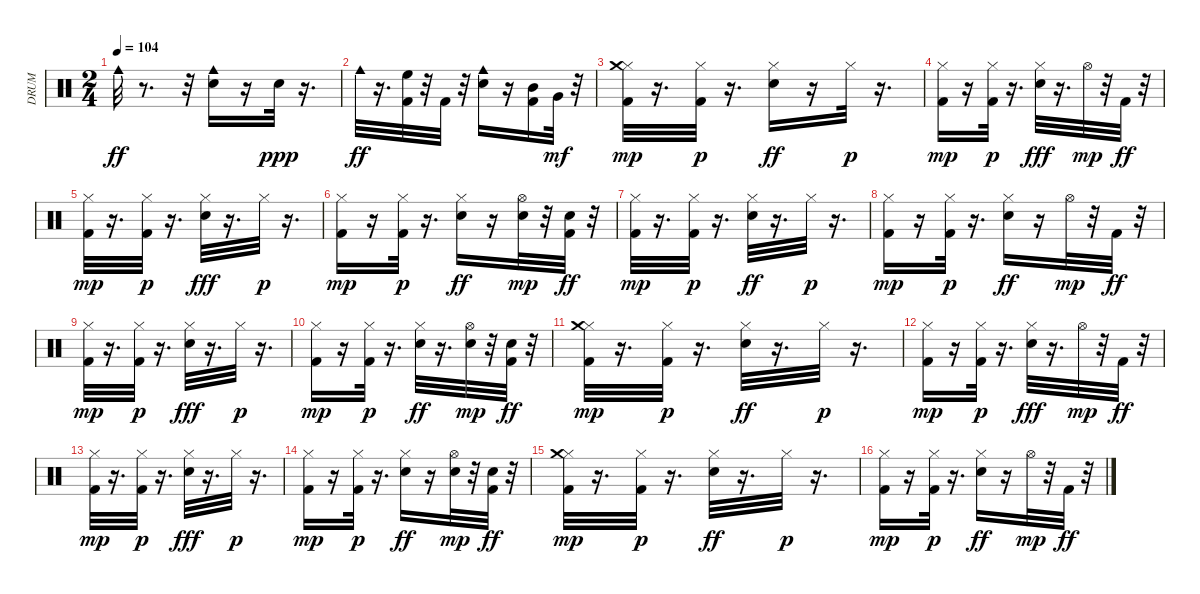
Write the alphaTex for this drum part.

\track ("DRUM    " "DRUM    ") {instrument percussion}
\staff {score}
\articulation defaults
\ts (2 4)
\tempo 104
\clef neutral
\ks c "Cowbell medium (hit)".32{dy ff}
r.8{d} r.32 ("Cowbell medium (hit)" "Snare (hit) 2").16 r.16 "Snare (hit) 2".32{dy ppp} r.16{d} |
"Cowbell medium (hit)".32{dy ff} r.16{d} ("Kick (hit) 2" "High Floor Tom (hit)").32 r.32 "Kick (hit) 2".32 r.32 ("Cowbell medium (hit)" "Snare (hit) 2").16 r.16 ("Kick (hit) 2" "Mid Tom (hit)").16 "Very Low Tom (hit)".32{dy mf} r.32 |
("Kick (hit) 2" "Hi-Hat (closed)" "Crash medium (hit)").32{dy mp} r.16{d} ("Kick (hit) 2" "Hi-Hat (closed)").32{dy p} r.16{d} ("Hi-Hat (closed)" "Snare (hit) 2").16{dy ff} r.16 "Hi-Hat (closed)".32{dy p} r.16{d} |
("Kick (hit) 2" "Hi-Hat (closed)").16{dy mp} r.16 ("Kick (hit) 2" "Hi-Hat (closed)").32{dy p} r.16{d} ("Hi-Hat (closed)" "Snare (hit) 2").32{dy fff} r.16{d} "Hi-Hat (open)".32{dy mp} r.32 "Kick (hit) 2".32{dy ff} r.32 |
("Kick (hit) 2" "Hi-Hat (closed)").32{dy mp} r.16{d} ("Kick (hit) 2" "Hi-Hat (closed)").32{dy p} r.16{d} ("Hi-Hat (closed)" "Snare (hit) 2").32{dy fff} r.16{d} "Hi-Hat (closed)".32{dy p} r.16{d} |
("Kick (hit) 2" "Hi-Hat (closed)").16{dy mp} r.16 ("Kick (hit) 2" "Hi-Hat (closed)").32{dy p} r.16{d} ("Hi-Hat (closed)" "Snare (hit) 2").16{dy ff} r.16 ("Hi-Hat (open)" "Snare (hit) 2").32{dy mp} r.32 ("Kick (hit) 2" "Snare (hit) 2").32{dy ff} r.32 |
("Kick (hit) 2" "Hi-Hat (closed)").32{dy mp} r.16{d} ("Kick (hit) 2" "Hi-Hat (closed)").32{dy p} r.16{d} ("Hi-Hat (closed)" "Snare (hit) 2").32{dy ff} r.16{d} "Hi-Hat (closed)".32{dy p} r.16{d} |
("Kick (hit) 2" "Hi-Hat (closed)").16{dy mp} r.16 ("Kick (hit) 2" "Hi-Hat (closed)").32{dy p} r.16{d} ("Hi-Hat (closed)" "Snare (hit) 2").16{dy ff} r.16 "Hi-Hat (open)".32{dy mp} r.32 "Kick (hit) 2".32{dy ff} r.32 |
("Kick (hit) 2" "Hi-Hat (closed)").32{dy mp} r.16{d} ("Kick (hit) 2" "Hi-Hat (closed)").32{dy p} r.16{d} ("Hi-Hat (closed)" "Snare (hit) 2").32{dy fff} r.16{d} "Hi-Hat (closed)".32{dy p} r.16{d} |
("Kick (hit) 2" "Hi-Hat (closed)").16{dy mp} r.16 ("Kick (hit) 2" "Hi-Hat (closed)").32{dy p} r.16{d} ("Hi-Hat (closed)" "Snare (hit) 2").32{dy ff} r.16{d} ("Hi-Hat (open)" "Snare (hit) 2").32{dy mp} r.32 ("Kick (hit) 2" "Snare (hit) 2").32{dy ff} r.32 |
("Kick (hit) 2" "Hi-Hat (closed)" "Crash medium (hit)").32{dy mp} r.16{d} ("Kick (hit) 2" "Hi-Hat (closed)").32{dy p} r.16{d} ("Hi-Hat (closed)" "Snare (hit) 2").32{dy ff} r.16{d} "Hi-Hat (closed)".32{dy p} r.16{d} |
("Kick (hit) 2" "Hi-Hat (closed)").16{dy mp} r.16 ("Kick (hit) 2" "Hi-Hat (closed)").32{dy p} r.16{d} ("Hi-Hat (closed)" "Snare (hit) 2").32{dy fff} r.16{d} "Hi-Hat (open)".32{dy mp} r.32 "Kick (hit) 2".32{dy ff} r.32 |
("Kick (hit) 2" "Hi-Hat (closed)").32{dy mp} r.16{d} ("Kick (hit) 2" "Hi-Hat (closed)").32{dy p} r.16{d} ("Hi-Hat (closed)" "Snare (hit) 2").32{dy fff} r.16{d} "Hi-Hat (closed)".32{dy p} r.16{d} |
("Kick (hit) 2" "Hi-Hat (closed)").16{dy mp} r.16 ("Kick (hit) 2" "Hi-Hat (closed)").32{dy p} r.16{d} ("Hi-Hat (closed)" "Snare (hit) 2").16{dy ff} r.16 ("Hi-Hat (open)" "Snare (hit) 2").32{dy mp} r.32 ("Kick (hit) 2" "Snare (hit) 2").32{dy ff} r.32 |
("Kick (hit) 2" "Hi-Hat (closed)" "Crash medium (hit)").32{dy mp} r.16{d} ("Kick (hit) 2" "Hi-Hat (closed)").32{dy p} r.16{d} ("Hi-Hat (closed)" "Snare (hit) 2").32{dy ff} r.16{d} "Hi-Hat (closed)".32{dy p} r.16{d} |
("Kick (hit) 2" "Hi-Hat (closed)").16{dy mp} r.16 ("Kick (hit) 2" "Hi-Hat (closed)").32{dy p} r.16{d} ("Hi-Hat (closed)" "Snare (hit) 2").16{dy ff} r.16 "Hi-Hat (open)".32{dy mp} r.32 "Kick (hit) 2".32{dy ff} r.32
